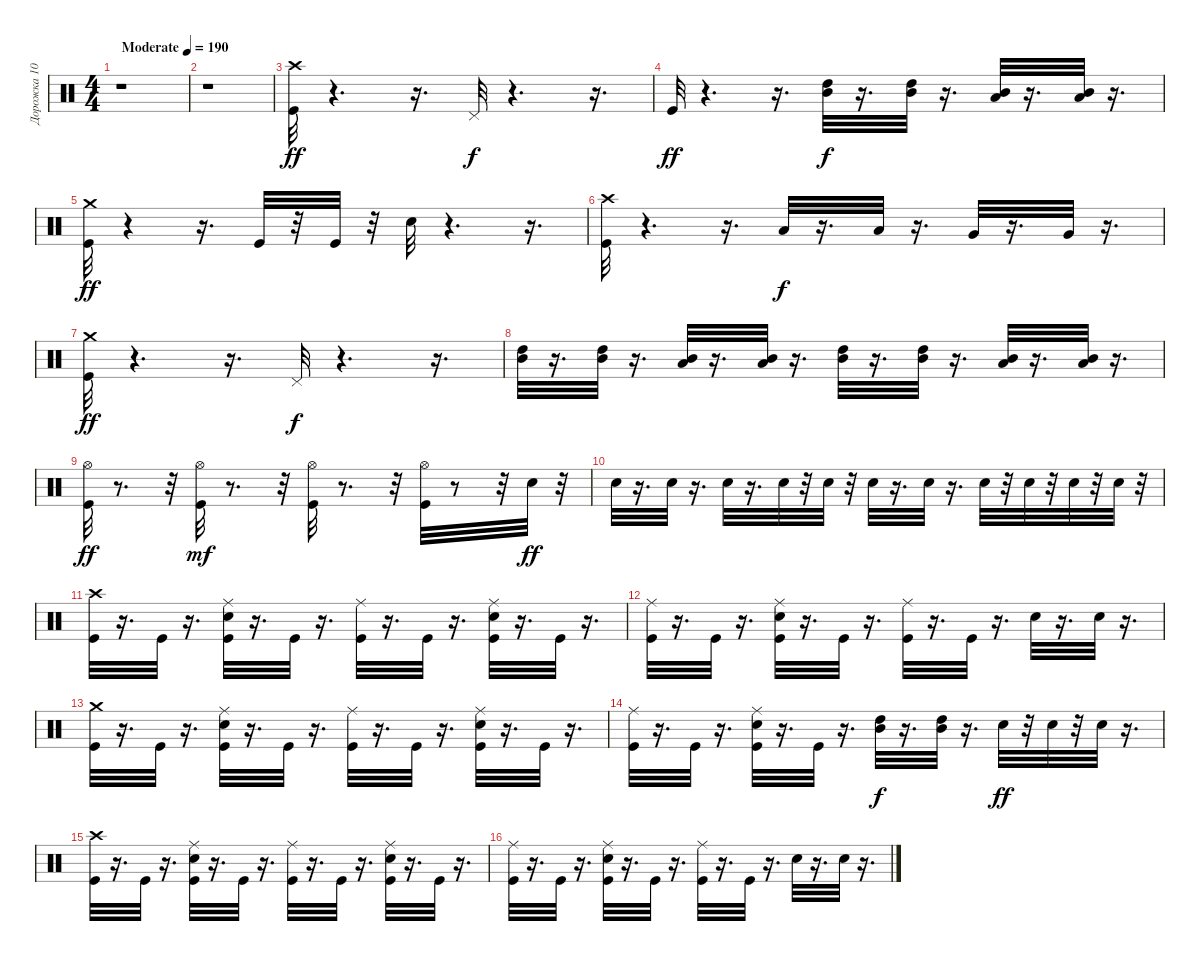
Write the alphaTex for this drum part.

\track ("Дорожка 10" "Дорожка 10") {instrument percussion}
\staff {score}
\articulation defaults
\ts (4 4)
\tempo (190 "Moderate")
\clef neutral
\ks c
r.1{dy ff} |
r.1 |
("Crash high (hit)" "Kick (hit)").32 r.4{d} r.16{d} "Pedal Hi-Hat (hit)".32{dy f} r.4{d} r.16{d} |
"Kick (hit)".32{dy ff} r.4{d} r.16{d} ("High Tom (hit)" "Mid Tom (hit)").32{dy f} r.16{d} ("Mid Tom (hit)" "High Tom (hit)").32 r.16{d} ("Low Tom (hit)" "Mid Tom (hit)").32 r.16{d} ("Low Tom (hit)" "Mid Tom (hit)").32 r.16{d} |
("Crash medium (hit)" "Kick (hit)").32{dy ff} r.4 r.16{d} "Kick (hit)".32 r.32 "Kick (hit)".32 r.32 "Snare (hit) 2".32 r.4{d} r.16{d} |
("Crash high (hit)" "Kick (hit)").32 r.4{d} r.16{d} "Low Tom (hit)".32{dy f} r.16{d} "Low Tom (hit)".32 r.16{d} "Very Low Tom (hit)".32 r.16{d} "Very Low Tom (hit)".32 r.16{d} |
("Crash medium (hit)" "Kick (hit)").32{dy ff} r.4{d} r.16{d} "Pedal Hi-Hat (hit)".32{dy f} r.4{d} r.16{d} |
("Mid Tom (hit)" "High Tom (hit)").32 r.16{d} ("Mid Tom (hit)" "High Tom (hit)").32 r.16{d} ("Low Tom (hit)" "Mid Tom (hit)").32 r.16{d} ("Low Tom (hit)" "Mid Tom (hit)").32 r.16{d} ("Mid Tom (hit)" "High Tom (hit)").32 r.16{d} ("Mid Tom (hit)" "High Tom (hit)").32 r.16{d} ("Low Tom (hit)" "Mid Tom (hit)").32 r.16{d} ("Low Tom (hit)" "Mid Tom (hit)").32 r.16{d} |
("Hi-Hat (open)" "Kick (hit)").32{dy ff} r.8{d} r.32 ("Kick (hit)" "Hi-Hat (open)").32{dy mf} r.8{d} r.32 ("Kick (hit)" "Hi-Hat (open)").32 r.8{d} r.32 ("Kick (hit)" "Hi-Hat (open)").32 r.8 r.32 "Snare (hit) 2".32{dy ff} r.32 |
"Snare (hit) 2".32 r.16{d} "Snare (hit) 2".32 r.16{d} "Snare (hit) 2".32 r.16{d} "Snare (hit) 2".32 r.32 "Snare (hit) 2".32 r.32 "Snare (hit) 2".32 r.16{d} "Snare (hit) 2".32 r.16{d} "Snare (hit) 2".32 r.32 "Snare (hit) 2".32 r.32 "Snare (hit) 2".32 r.32 "Snare (hit) 2".32 r.32 |
("Crash high (hit)" "Kick (hit)").32 r.16{d} "Kick (hit)".32 r.16{d} ("Ride (middle)" "Kick (hit)" "Snare (hit) 2").32 r.16{d} "Kick (hit)".32 r.16{d} ("Ride (middle)" "Kick (hit)").32 r.16{d} "Kick (hit)".32 r.16{d} ("Ride (middle)" "Kick (hit)" "Snare (hit) 2").32 r.16{d} "Kick (hit)".32 r.16{d} |
("Ride (middle)" "Kick (hit)").32 r.16{d} "Kick (hit)".32 r.16{d} ("Ride (middle)" "Kick (hit)" "Snare (hit) 2").32 r.16{d} "Kick (hit)".32 r.16{d} ("Ride (middle)" "Kick (hit)").32 r.16{d} "Kick (hit)".32 r.16{d} "Snare (hit) 2".32 r.16{d} "Snare (hit) 2".32 r.16{d} |
("Crash medium (hit)" "Kick (hit)").32 r.16{d} "Kick (hit)".32 r.16{d} ("Kick (hit)" "Snare (hit) 2" "Ride (middle)").32 r.16{d} "Kick (hit)".32 r.16{d} ("Kick (hit)" "Ride (middle)").32 r.16{d} "Kick (hit)".32 r.16{d} ("Kick (hit)" "Snare (hit) 2" "Ride (middle)").32 r.16{d} "Kick (hit)".32 r.16{d} |
("Ride (middle)" "Kick (hit)").32 r.16{d} "Kick (hit)".32 r.16{d} ("Ride (middle)" "Kick (hit)" "Snare (hit) 2").32 r.16{d} "Kick (hit)".32 r.16{d} ("Mid Tom (hit)" "High Tom (hit)").32{dy f} r.16{d} ("Mid Tom (hit)" "High Tom (hit)").32 r.16{d} "Snare (hit) 2".32{dy ff} r.32 "Snare (hit) 2".32 r.32 "Snare (hit) 2".32 r.16{d} |
("Crash high (hit)" "Kick (hit)").32 r.16{d} "Kick (hit)".32 r.16{d} ("Ride (middle)" "Kick (hit)" "Snare (hit) 2").32 r.16{d} "Kick (hit)".32 r.16{d} ("Ride (middle)" "Kick (hit)").32 r.16{d} "Kick (hit)".32 r.16{d} ("Ride (middle)" "Kick (hit)" "Snare (hit) 2").32 r.16{d} "Kick (hit)".32 r.16{d} |
("Ride (middle)" "Kick (hit)").32 r.16{d} "Kick (hit)".32 r.16{d} ("Ride (middle)" "Kick (hit)" "Snare (hit) 2").32 r.16{d} "Kick (hit)".32 r.16{d} ("Ride (middle)" "Kick (hit)").32 r.16{d} "Kick (hit)".32 r.16{d} "Snare (hit) 2".32 r.16{d} "Snare (hit) 2".32 r.16{d}
